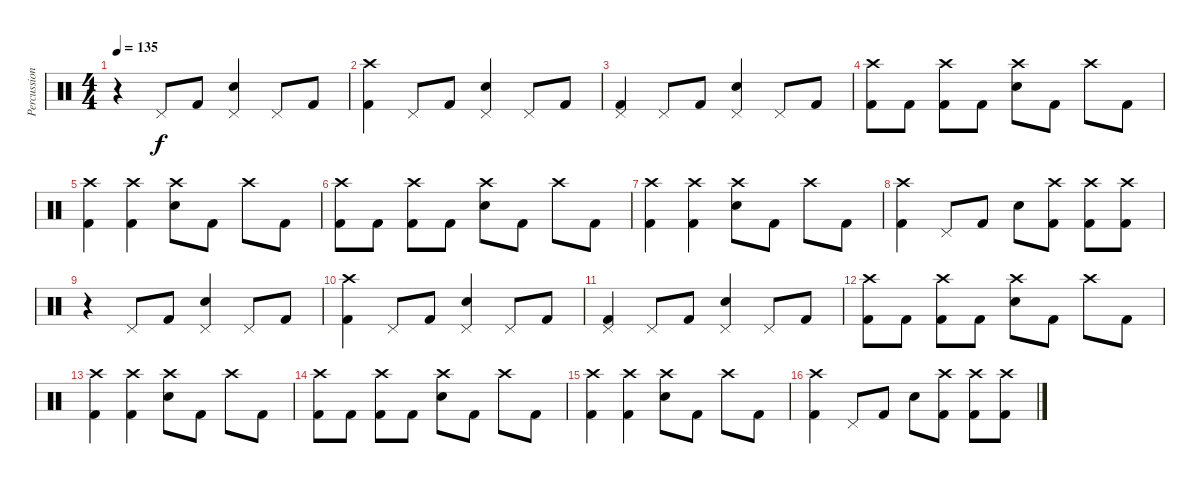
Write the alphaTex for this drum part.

\track ("Percussions" "Percussion") {instrument percussion}
\staff {score}
\articulation defaults
\ts (4 4)
\tempo 135
\clef neutral
\ks c
r.4{dy f} "Pedal Hi-Hat (hit)".8 "Kick (hit) 2".8 ("Pedal Hi-Hat (hit)" "Snare (hit) 2").4 "Pedal Hi-Hat (hit)".8 "Kick (hit) 2".8 |
("Crash high (hit)" "Kick (hit) 2").4 "Pedal Hi-Hat (hit)".8 "Kick (hit) 2".8 ("Pedal Hi-Hat (hit)" "Snare (hit) 2").4 "Pedal Hi-Hat (hit)".8 "Kick (hit) 2".8 |
("Pedal Hi-Hat (hit)" "Kick (hit) 2").4 "Pedal Hi-Hat (hit)".8 "Kick (hit) 2".8 ("Pedal Hi-Hat (hit)" "Snare (hit) 2").4 "Pedal Hi-Hat (hit)".8 "Kick (hit) 2".8 |
("Crash high (hit)" "Kick (hit) 2").8 "Kick (hit) 2".8 ("Crash high (hit)" "Kick (hit) 2").8 "Kick (hit) 2".8 ("Crash high (hit)" "Snare (hit) 2").8 "Kick (hit) 2".8 "Crash high (hit)".8 "Kick (hit) 2".8 |
("Crash high (hit)" "Kick (hit) 2").4 ("Crash high (hit)" "Kick (hit) 2").4 ("Crash high (hit)" "Snare (hit) 2").8 "Kick (hit) 2".8 "Crash high (hit)".8 "Kick (hit) 2".8 |
("Crash high (hit)" "Kick (hit) 2").8 "Kick (hit) 2".8 ("Crash high (hit)" "Kick (hit) 2").8 "Kick (hit) 2".8 ("Crash high (hit)" "Snare (hit) 2").8 "Kick (hit) 2".8 "Crash high (hit)".8 "Kick (hit) 2".8 |
("Crash high (hit)" "Kick (hit) 2").4 ("Crash high (hit)" "Kick (hit) 2").4 ("Crash high (hit)" "Snare (hit) 2").8 "Kick (hit) 2".8 "Crash high (hit)".8 "Kick (hit) 2".8 |
("Crash high (hit)" "Kick (hit) 2").4 "Pedal Hi-Hat (hit)".8 "Kick (hit) 2".8 "Snare (hit) 2".8 ("Crash high (hit)" "Kick (hit) 2").8 ("Crash high (hit)" "Kick (hit) 2").8 ("Crash high (hit)" "Kick (hit) 2").8 |
r.4 "Pedal Hi-Hat (hit)".8 "Kick (hit) 2".8 ("Pedal Hi-Hat (hit)" "Snare (hit) 2").4 "Pedal Hi-Hat (hit)".8 "Kick (hit) 2".8 |
("Crash high (hit)" "Kick (hit) 2").4 "Pedal Hi-Hat (hit)".8 "Kick (hit) 2".8 ("Pedal Hi-Hat (hit)" "Snare (hit) 2").4 "Pedal Hi-Hat (hit)".8 "Kick (hit) 2".8 |
("Pedal Hi-Hat (hit)" "Kick (hit) 2").4 "Pedal Hi-Hat (hit)".8 "Kick (hit) 2".8 ("Pedal Hi-Hat (hit)" "Snare (hit) 2").4 "Pedal Hi-Hat (hit)".8 "Kick (hit) 2".8 |
("Crash high (hit)" "Kick (hit) 2").8 "Kick (hit) 2".8 ("Crash high (hit)" "Kick (hit) 2").8 "Kick (hit) 2".8 ("Crash high (hit)" "Snare (hit) 2").8 "Kick (hit) 2".8 "Crash high (hit)".8 "Kick (hit) 2".8 |
("Crash high (hit)" "Kick (hit) 2").4 ("Crash high (hit)" "Kick (hit) 2").4 ("Crash high (hit)" "Snare (hit) 2").8 "Kick (hit) 2".8 "Crash high (hit)".8 "Kick (hit) 2".8 |
("Crash high (hit)" "Kick (hit) 2").8 "Kick (hit) 2".8 ("Crash high (hit)" "Kick (hit) 2").8 "Kick (hit) 2".8 ("Crash high (hit)" "Snare (hit) 2").8 "Kick (hit) 2".8 "Crash high (hit)".8 "Kick (hit) 2".8 |
("Crash high (hit)" "Kick (hit) 2").4 ("Crash high (hit)" "Kick (hit) 2").4 ("Crash high (hit)" "Snare (hit) 2").8 "Kick (hit) 2".8 "Crash high (hit)".8 "Kick (hit) 2".8 |
("Crash high (hit)" "Kick (hit) 2").4 "Pedal Hi-Hat (hit)".8 "Kick (hit) 2".8 "Snare (hit) 2".8 ("Crash high (hit)" "Kick (hit) 2").8 ("Crash high (hit)" "Kick (hit) 2").8 ("Crash high (hit)" "Kick (hit) 2").8
